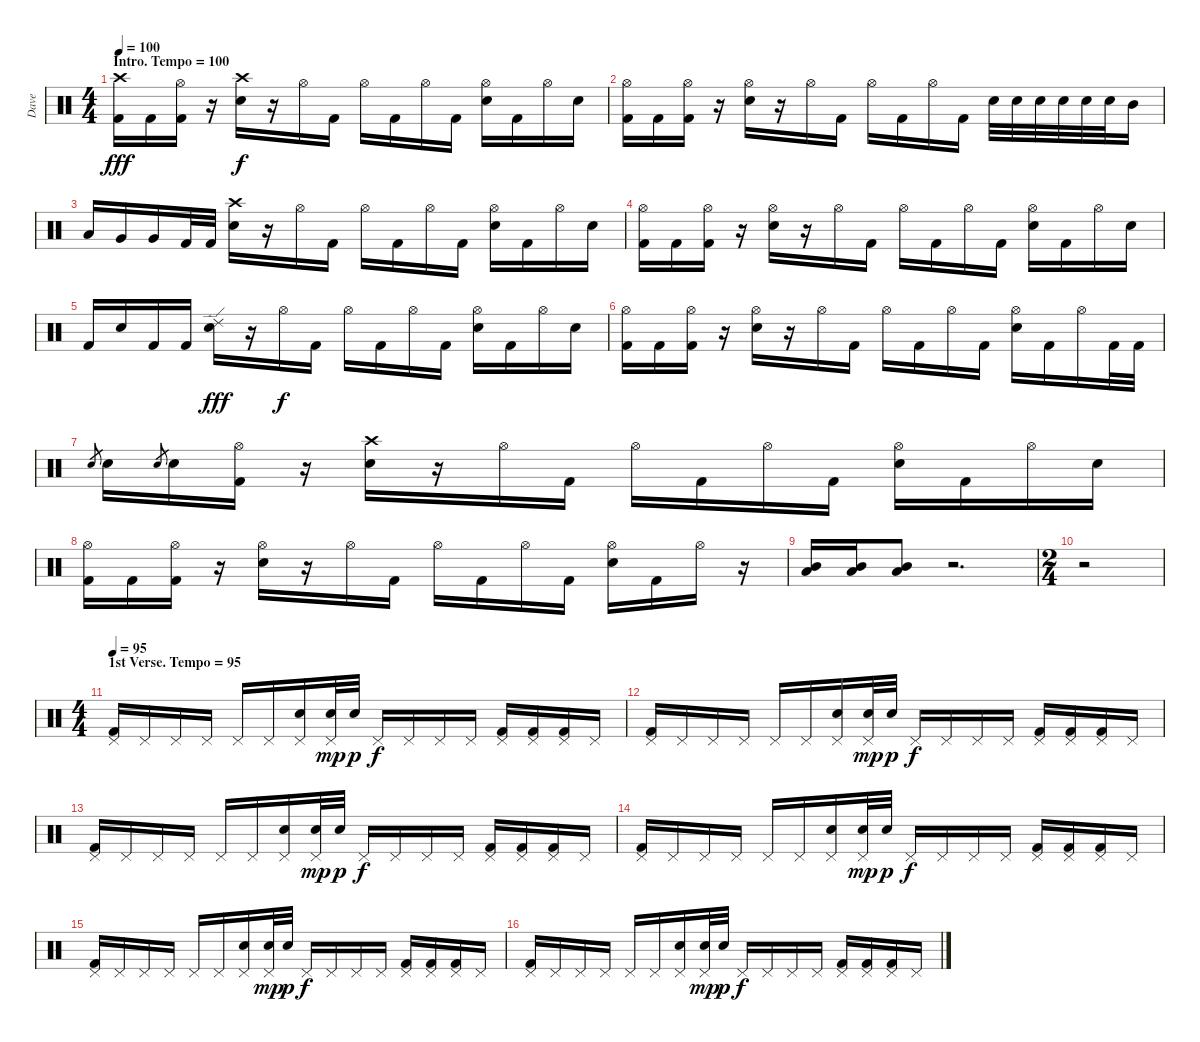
\track ("Dave" "Dave") {instrument percussion}
\staff {score}
\articulation defaults
\ts (4 4)
\section ("" "Intro. Tempo = 100")
\tempo 100
\clef neutral
\ks c
("Crash high (hit)" "Kick (hit) 2").16{dy fff} "Kick (hit) 2".16 ("Hi-Hat (open)" "Kick (hit) 2").16 r.16 ("Crash high (hit)" "Electric Snare (hit)").16{dy f} r.16 "Hi-Hat (open)".16 "Kick (hit) 2".16 "Hi-Hat (open)".16 "Kick (hit) 2".16 "Hi-Hat (open)".16 "Kick (hit) 2".16 ("Hi-Hat (open)" "Electric Snare (hit)").16 "Kick (hit) 2".16 "Hi-Hat (open)".16 "Electric Snare (hit)".16 |
("Hi-Hat (open)" "Kick (hit) 2").16 "Kick (hit) 2".16 ("Hi-Hat (open)" "Kick (hit) 2").16 r.16 ("Hi-Hat (open)" "Electric Snare (hit)").16 r.16 "Hi-Hat (open)".16 "Kick (hit) 2".16 "Hi-Hat (open)".16 "Kick (hit) 2".16 "Hi-Hat (open)".16 "Kick (hit) 2".16 "Electric Snare (hit)".32 "Electric Snare (hit)".32 "Electric Snare (hit)".32 "Electric Snare (hit)".32 "Electric Snare (hit)".32 "Electric Snare (hit)".32 "Mid Tom (hit)".16 |
"Low Tom (hit)".16 "Very Low Tom (hit)".16 "Very Low Tom (hit)".16 "Kick (hit) 2".32 "Kick (hit) 2".32 ("Crash high (hit)" "Electric Snare (hit)").16 r.16 "Hi-Hat (open)".16 "Kick (hit) 2".16 "Hi-Hat (open)".16 "Kick (hit) 2".16 "Hi-Hat (open)".16 "Kick (hit) 2".16 ("Hi-Hat (open)" "Electric Snare (hit)").16 "Kick (hit) 2".16 "Hi-Hat (open)".16 "Electric Snare (hit)".16 |
("Hi-Hat (open)" "Kick (hit) 2").16 "Kick (hit) 2".16 ("Hi-Hat (open)" "Kick (hit) 2").16 r.16 ("Hi-Hat (open)" "Electric Snare (hit)").16 r.16 "Hi-Hat (open)".16 "Kick (hit) 2".16 "Hi-Hat (open)".16 "Kick (hit) 2".16 "Hi-Hat (open)".16 "Kick (hit) 2".16 ("Hi-Hat (open)" "Electric Snare (hit)").16 "Kick (hit) 2".16 "Hi-Hat (open)".16 "Electric Snare (hit)".16 |
"Kick (hit) 2".16 "Electric Snare (hit)".16 "Kick (hit) 2".16 "Kick (hit) 2".16 ("Ride (edge) 2" "Electric Snare (hit)").16{dy fff} r.16 "Hi-Hat (open)".16{dy f} "Kick (hit) 2".16 "Hi-Hat (open)".16 "Kick (hit) 2".16 "Hi-Hat (open)".16 "Kick (hit) 2".16 ("Hi-Hat (open)" "Electric Snare (hit)").16 "Kick (hit) 2".16 "Hi-Hat (open)".16 "Electric Snare (hit)".16 |
("Hi-Hat (open)" "Kick (hit) 2").16 "Kick (hit) 2".16 ("Hi-Hat (open)" "Kick (hit) 2").16 r.16 ("Hi-Hat (open)" "Electric Snare (hit)").16 r.16 "Hi-Hat (open)".16 "Kick (hit) 2".16 "Hi-Hat (open)".16 "Kick (hit) 2".16 "Hi-Hat (open)".16 "Kick (hit) 2".16 ("Hi-Hat (open)" "Electric Snare (hit)").16 "Kick (hit) 2".16 "Hi-Hat (open)".16 "Kick (hit) 2".32 "Kick (hit) 2".32 |
"Electric Snare (hit)".8{gr} "Electric Snare (hit)".16 "Electric Snare (hit)".8{gr} "Electric Snare (hit)".16 ("Hi-Hat (open)" "Kick (hit) 2").16 r.16 ("Crash high (hit)" "Electric Snare (hit)").16 r.16 "Hi-Hat (open)".16 "Kick (hit) 2".16 "Hi-Hat (open)".16 "Kick (hit) 2".16 "Hi-Hat (open)".16 "Kick (hit) 2".16 ("Hi-Hat (open)" "Electric Snare (hit)").16 "Kick (hit) 2".16 "Hi-Hat (open)".16 "Electric Snare (hit)".16 |
("Hi-Hat (open)" "Kick (hit) 2").16 "Kick (hit) 2".16 ("Hi-Hat (open)" "Kick (hit) 2").16 r.16 ("Hi-Hat (open)" "Electric Snare (hit)").16 r.16 "Hi-Hat (open)".16 "Kick (hit) 2".16 "Hi-Hat (open)".16 "Kick (hit) 2".16 "Hi-Hat (open)".16 "Kick (hit) 2".16 ("Hi-Hat (open)" "Electric Snare (hit)").16 "Kick (hit) 2".16 "Hi-Hat (open)".16 r.16 |
("Mid Tom (hit)" "Low Floor Tom (hit)").16 ("Mid Tom (hit)" "Low Floor Tom (hit)").16 ("Mid Tom (hit)" "Low Floor Tom (hit)").8 r.2{d} |
\ts (2 4)
r.2 |
\ts (4 4)
\section ("" "1st Verse. Tempo = 95")
\tempo 95
("Pedal Hi-Hat (hit)" "Kick (hit) 2").16 "Pedal Hi-Hat (hit)".16 "Pedal Hi-Hat (hit)".16 "Pedal Hi-Hat (hit)".16 "Pedal Hi-Hat (hit)".16 "Pedal Hi-Hat (hit)".16 ("Pedal Hi-Hat (hit)" "Electric Snare (hit)").16 ("Pedal Hi-Hat (hit)" "Electric Snare (hit)").32{dy mp} "Electric Snare (hit)".32{dy p} "Pedal Hi-Hat (hit)".16{dy f} "Pedal Hi-Hat (hit)".16 "Pedal Hi-Hat (hit)".16 "Pedal Hi-Hat (hit)".16 ("Pedal Hi-Hat (hit)" "Kick (hit) 2").16 ("Pedal Hi-Hat (hit)" "Kick (hit) 2").16 ("Pedal Hi-Hat (hit)" "Kick (hit) 2").16 "Pedal Hi-Hat (hit)".16 |
("Pedal Hi-Hat (hit)" "Kick (hit) 2").16 "Pedal Hi-Hat (hit)".16 "Pedal Hi-Hat (hit)".16 "Pedal Hi-Hat (hit)".16 "Pedal Hi-Hat (hit)".16 "Pedal Hi-Hat (hit)".16 ("Pedal Hi-Hat (hit)" "Electric Snare (hit)").16 ("Pedal Hi-Hat (hit)" "Electric Snare (hit)").32{dy mp} "Electric Snare (hit)".32{dy p} "Pedal Hi-Hat (hit)".16{dy f} "Pedal Hi-Hat (hit)".16 "Pedal Hi-Hat (hit)".16 "Pedal Hi-Hat (hit)".16 ("Pedal Hi-Hat (hit)" "Kick (hit) 2").16 ("Pedal Hi-Hat (hit)" "Kick (hit) 2").16 ("Pedal Hi-Hat (hit)" "Kick (hit) 2").16 "Pedal Hi-Hat (hit)".16 |
("Pedal Hi-Hat (hit)" "Kick (hit) 2").16 "Pedal Hi-Hat (hit)".16 "Pedal Hi-Hat (hit)".16 "Pedal Hi-Hat (hit)".16 "Pedal Hi-Hat (hit)".16 "Pedal Hi-Hat (hit)".16 ("Pedal Hi-Hat (hit)" "Electric Snare (hit)").16 ("Pedal Hi-Hat (hit)" "Electric Snare (hit)").32{dy mp} "Electric Snare (hit)".32{dy p} "Pedal Hi-Hat (hit)".16{dy f} "Pedal Hi-Hat (hit)".16 "Pedal Hi-Hat (hit)".16 "Pedal Hi-Hat (hit)".16 ("Pedal Hi-Hat (hit)" "Kick (hit) 2").16 ("Pedal Hi-Hat (hit)" "Kick (hit) 2").16 ("Pedal Hi-Hat (hit)" "Kick (hit) 2").16 "Pedal Hi-Hat (hit)".16 |
("Pedal Hi-Hat (hit)" "Kick (hit) 2").16 "Pedal Hi-Hat (hit)".16 "Pedal Hi-Hat (hit)".16 "Pedal Hi-Hat (hit)".16 "Pedal Hi-Hat (hit)".16 "Pedal Hi-Hat (hit)".16 ("Pedal Hi-Hat (hit)" "Electric Snare (hit)").16 ("Pedal Hi-Hat (hit)" "Electric Snare (hit)").32{dy mp} "Electric Snare (hit)".32{dy p} "Pedal Hi-Hat (hit)".16{dy f} "Pedal Hi-Hat (hit)".16 "Pedal Hi-Hat (hit)".16 "Pedal Hi-Hat (hit)".16 ("Pedal Hi-Hat (hit)" "Kick (hit) 2").16 ("Pedal Hi-Hat (hit)" "Kick (hit) 2").16 ("Pedal Hi-Hat (hit)" "Kick (hit) 2").16 "Pedal Hi-Hat (hit)".16 |
("Pedal Hi-Hat (hit)" "Kick (hit) 2").16 "Pedal Hi-Hat (hit)".16 "Pedal Hi-Hat (hit)".16 "Pedal Hi-Hat (hit)".16 "Pedal Hi-Hat (hit)".16 "Pedal Hi-Hat (hit)".16 ("Pedal Hi-Hat (hit)" "Electric Snare (hit)").16 ("Pedal Hi-Hat (hit)" "Electric Snare (hit)").32{dy mp} "Electric Snare (hit)".32{dy p} "Pedal Hi-Hat (hit)".16{dy f} "Pedal Hi-Hat (hit)".16 "Pedal Hi-Hat (hit)".16 "Pedal Hi-Hat (hit)".16 ("Pedal Hi-Hat (hit)" "Kick (hit) 2").16 ("Pedal Hi-Hat (hit)" "Kick (hit) 2").16 ("Pedal Hi-Hat (hit)" "Kick (hit) 2").16 "Pedal Hi-Hat (hit)".16 |
("Pedal Hi-Hat (hit)" "Kick (hit) 2").16 "Pedal Hi-Hat (hit)".16 "Pedal Hi-Hat (hit)".16 "Pedal Hi-Hat (hit)".16 "Pedal Hi-Hat (hit)".16 "Pedal Hi-Hat (hit)".16 ("Pedal Hi-Hat (hit)" "Electric Snare (hit)").16 ("Pedal Hi-Hat (hit)" "Electric Snare (hit)").32{dy mp} "Electric Snare (hit)".32{dy p} "Pedal Hi-Hat (hit)".16{dy f} "Pedal Hi-Hat (hit)".16 "Pedal Hi-Hat (hit)".16 "Pedal Hi-Hat (hit)".16 ("Pedal Hi-Hat (hit)" "Kick (hit) 2").16 ("Pedal Hi-Hat (hit)" "Kick (hit) 2").16 ("Pedal Hi-Hat (hit)" "Kick (hit) 2").16 "Pedal Hi-Hat (hit)".16
